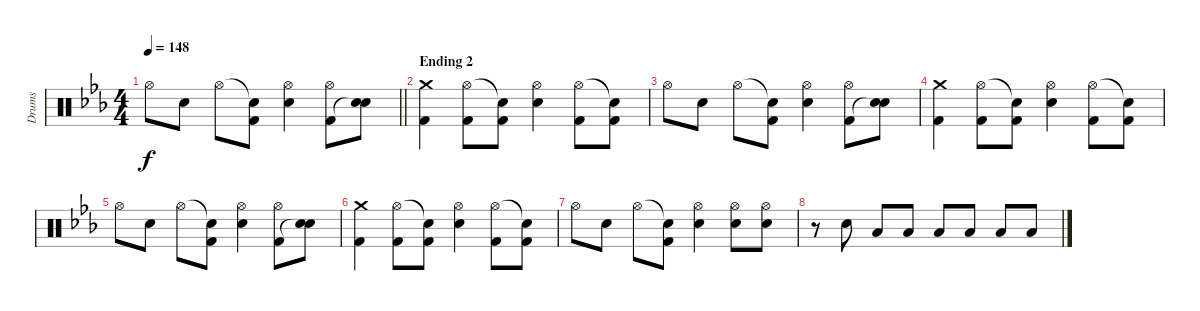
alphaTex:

\track ("Drums" "Drums") {instrument percussion}
\staff {score}
\articulation defaults
\ts (4 4)
\tempo 148
\clef neutral
\barLineRight lightlight
\ks eb "Hi-Hat (open)".8{dy f} "Electric Snare (hit)".8 "Hi-Hat (open)".8
("Snare (hit)"{t} "Kick (hit) 2").8 ("Hi-Hat (open)" "Electric Snare (hit)").4 ("Hi-Hat (open)" "Kick (hit) 2").8 ("Electric Snare (hit)" "Snare (hit)"{t}).8 |
\section ("" "Ending 2")
("Crash medium (hit)" "Kick (hit) 2").4 ("Hi-Hat (open)" "Kick (hit) 2").8 ("Snare (hit)"{t} "Kick (hit) 2").8 ("Hi-Hat (open)" "Electric Snare (hit)").4 ("Hi-Hat (open)" "Kick (hit) 2").8 ("Snare (hit)"{t} "Kick (hit) 2").8 |
"Hi-Hat (open)".8 "Electric Snare (hit)".8 "Hi-Hat (open)".8 ("Snare (hit)"{t} "Kick (hit) 2").8 ("Hi-Hat (open)" "Electric Snare (hit)").4 ("Hi-Hat (open)" "Kick (hit) 2").8 ("Electric Snare (hit)" "Snare (hit)"{t}).8 |
("Crash medium (hit)" "Kick (hit) 2").4 ("Hi-Hat (open)" "Kick (hit) 2").8 ("Snare (hit)"{t} "Kick (hit) 2").8 ("Hi-Hat (open)" "Electric Snare (hit)").4 ("Hi-Hat (open)" "Kick (hit) 2").8 ("Snare (hit)"{t} "Kick (hit) 2").8 |
"Hi-Hat (open)".8 "Electric Snare (hit)".8 "Hi-Hat (open)".8 ("Snare (hit)"{t} "Kick (hit) 2").8 ("Hi-Hat (open)" "Electric Snare (hit)").4 ("Hi-Hat (open)" "Kick (hit) 2").8 ("Electric Snare (hit)" "Snare (hit)"{t}).8 |
("Crash medium (hit)" "Kick (hit) 2").4 ("Hi-Hat (open)" "Kick (hit) 2").8 ("Snare (hit)"{t} "Kick (hit) 2").8 ("Hi-Hat (open)" "Electric Snare (hit)").4 ("Hi-Hat (open)" "Kick (hit) 2").8 ("Snare (hit)"{t} "Kick (hit) 2").8 |
"Hi-Hat (open)".8 "Electric Snare (hit)".8 "Hi-Hat (open)".8 ("Snare (hit)"{t} "Kick (hit) 2").8 ("Hi-Hat (open)" "Electric Snare (hit)").4 ("Hi-Hat (open)" "Electric Snare (hit)").8 ("Hi-Hat (open)" "Electric Snare (hit)").8 |
r.8 "Electric Snare (hit)".8 "Low Floor Tom (hit)".8 "Low Floor Tom (hit)".8 "Low Floor Tom (hit)".8 "Low Floor Tom (hit)".8 "Low Floor Tom (hit)".8 "Low Floor Tom (hit)".8
